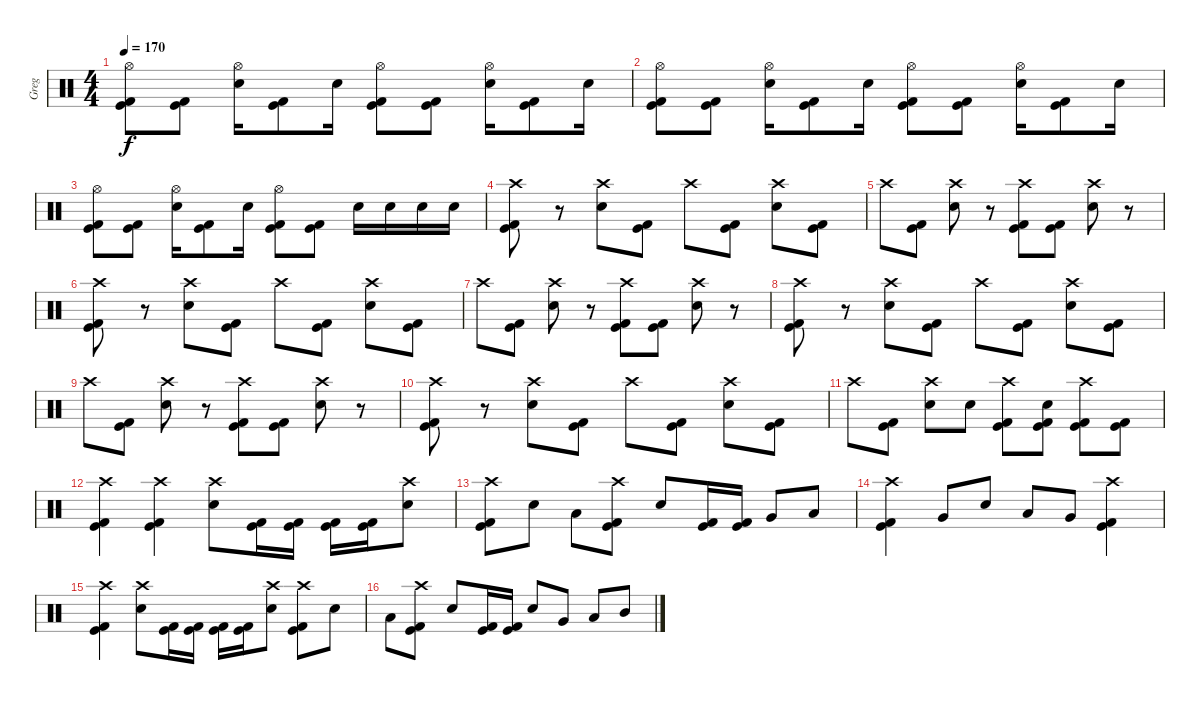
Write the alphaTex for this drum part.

\track ("Greg" "Greg") {instrument percussion}
\staff {score}
\articulation defaults
\ts (4 4)
\tempo 170
\clef neutral
\ks c
("Hi-Hat (open)" "Kick (hit)" "Kick (hit) 2").8{dy f} ("Kick (hit)" "Kick (hit) 2").8 ("Hi-Hat (open)" "Snare (hit) 2").16 ("Kick (hit)" "Kick (hit) 2").8 "Snare (hit) 2".16 ("Hi-Hat (open)" "Kick (hit)" "Kick (hit) 2").8 ("Kick (hit)" "Kick (hit) 2").8 ("Hi-Hat (open)" "Snare (hit) 2").16 ("Kick (hit)" "Kick (hit) 2").8 "Snare (hit) 2".16 |
("Hi-Hat (open)" "Kick (hit)" "Kick (hit) 2").8 ("Kick (hit)" "Kick (hit) 2").8 ("Hi-Hat (open)" "Snare (hit) 2").16 ("Kick (hit)" "Kick (hit) 2").8 "Snare (hit) 2".16 ("Hi-Hat (open)" "Kick (hit)" "Kick (hit) 2").8 ("Kick (hit)" "Kick (hit) 2").8 ("Hi-Hat (open)" "Snare (hit) 2").16 ("Kick (hit)" "Kick (hit) 2").8 "Snare (hit) 2".16 |
("Hi-Hat (open)" "Kick (hit)" "Kick (hit) 2").8 ("Kick (hit)" "Kick (hit) 2").8 ("Hi-Hat (open)" "Snare (hit) 2").16 ("Kick (hit)" "Kick (hit) 2").8 "Snare (hit) 2".16 ("Hi-Hat (open)" "Kick (hit)" "Kick (hit) 2").8 ("Kick (hit)" "Kick (hit) 2").8 "Snare (hit) 2".16 "Snare (hit) 2".16 "Snare (hit) 2".16 "Snare (hit) 2".16 |
("Crash high (hit)" "Kick (hit)" "Kick (hit) 2").8 r.8 ("Crash high (hit)" "Snare (hit) 2").8 ("Kick (hit)" "Kick (hit) 2").8 "Crash high (hit)".8 ("Kick (hit)" "Kick (hit) 2").8 ("Crash high (hit)" "Snare (hit) 2").8 ("Kick (hit)" "Kick (hit) 2").8 |
"Crash high (hit)".8 ("Kick (hit)" "Kick (hit) 2").8 ("Crash high (hit)" "Snare (hit) 2").8 r.8 ("Crash high (hit)" "Kick (hit)" "Kick (hit) 2").8 ("Kick (hit)" "Kick (hit) 2").8 ("Crash high (hit)" "Snare (hit) 2").8 r.8 |
("Crash high (hit)" "Kick (hit)" "Kick (hit) 2").8 r.8 ("Crash high (hit)" "Snare (hit) 2").8 ("Kick (hit)" "Kick (hit) 2").8 "Crash high (hit)".8 ("Kick (hit)" "Kick (hit) 2").8 ("Crash high (hit)" "Snare (hit) 2").8 ("Kick (hit)" "Kick (hit) 2").8 |
"Crash high (hit)".8 ("Kick (hit)" "Kick (hit) 2").8 ("Crash high (hit)" "Snare (hit) 2").8 r.8 ("Crash high (hit)" "Kick (hit)" "Kick (hit) 2").8 ("Kick (hit)" "Kick (hit) 2").8 ("Crash high (hit)" "Snare (hit) 2").8 r.8 |
("Crash high (hit)" "Kick (hit)" "Kick (hit) 2").8 r.8 ("Crash high (hit)" "Snare (hit) 2").8 ("Kick (hit)" "Kick (hit) 2").8 "Crash high (hit)".8 ("Kick (hit)" "Kick (hit) 2").8 ("Crash high (hit)" "Snare (hit) 2").8 ("Kick (hit)" "Kick (hit) 2").8 |
"Crash high (hit)".8 ("Kick (hit)" "Kick (hit) 2").8 ("Crash high (hit)" "Snare (hit) 2").8 r.8 ("Crash high (hit)" "Kick (hit)" "Kick (hit) 2").8 ("Kick (hit)" "Kick (hit) 2").8 ("Crash high (hit)" "Snare (hit) 2").8 r.8 |
("Crash high (hit)" "Kick (hit)" "Kick (hit) 2").8 r.8 ("Crash high (hit)" "Snare (hit) 2").8 ("Kick (hit)" "Kick (hit) 2").8 "Crash high (hit)".8 ("Kick (hit)" "Kick (hit) 2").8 ("Crash high (hit)" "Snare (hit) 2").8 ("Kick (hit)" "Kick (hit) 2").8 |
"Crash high (hit)".8 ("Kick (hit)" "Kick (hit) 2").8 ("Crash high (hit)" "Snare (hit) 2").8 "Snare (hit) 2".8 ("Crash high (hit)" "Kick (hit)" "Kick (hit) 2").8 ("Snare (hit) 2" "Kick (hit)" "Kick (hit) 2").8 ("Crash high (hit)" "Kick (hit)" "Kick (hit) 2").8 ("Kick (hit)" "Kick (hit) 2").8 |
("Crash high (hit)" "Kick (hit)" "Kick (hit) 2").4 ("Crash high (hit)" "Kick (hit)" "Kick (hit) 2").4 ("Crash high (hit)" "Snare (hit) 2").8 ("Kick (hit)" "Kick (hit) 2").16 ("Kick (hit)" "Kick (hit) 2").16 ("Kick (hit)" "Kick (hit) 2").16 ("Kick (hit)" "Kick (hit) 2").16 ("Crash high (hit)" "Snare (hit) 2").8 |
("Crash high (hit)" "Kick (hit)" "Kick (hit) 2").8 "Snare (hit) 2".8 "Low Tom (hit)".8 ("Crash high (hit)" "Kick (hit)" "Kick (hit) 2").8 "Snare (hit) 2".8 ("Kick (hit)" "Kick (hit) 2").16 ("Kick (hit)" "Kick (hit) 2").16 "Very Low Tom (hit)".8 "Low Tom (hit)".8 |
("Crash high (hit)" "Kick (hit)" "Kick (hit) 2").4 "Very Low Tom (hit)".8 "Snare (hit) 2".8 "Low Tom (hit)".8 "Very Low Tom (hit)".8 ("Crash high (hit)" "Kick (hit)" "Kick (hit) 2").4 |
("Crash high (hit)" "Kick (hit)" "Kick (hit) 2").4 ("Crash high (hit)" "Snare (hit) 2").8 ("Kick (hit)" "Kick (hit) 2").16 ("Kick (hit)" "Kick (hit) 2").16 ("Kick (hit)" "Kick (hit) 2").16 ("Kick (hit)" "Kick (hit) 2").16 ("Crash high (hit)" "Snare (hit) 2").8 ("Crash high (hit)" "Kick (hit)" "Kick (hit) 2").8 "Snare (hit) 2".8 |
"Low Tom (hit)".8 ("Crash high (hit)" "Kick (hit)" "Kick (hit) 2").8 "Snare (hit) 2".8 ("Kick (hit)" "Kick (hit) 2").16 ("Kick (hit)" "Kick (hit) 2").16 "Snare (hit) 2".8 "Very Low Tom (hit)".8 "Low Tom (hit)".8 "Mid Tom (hit)".8
